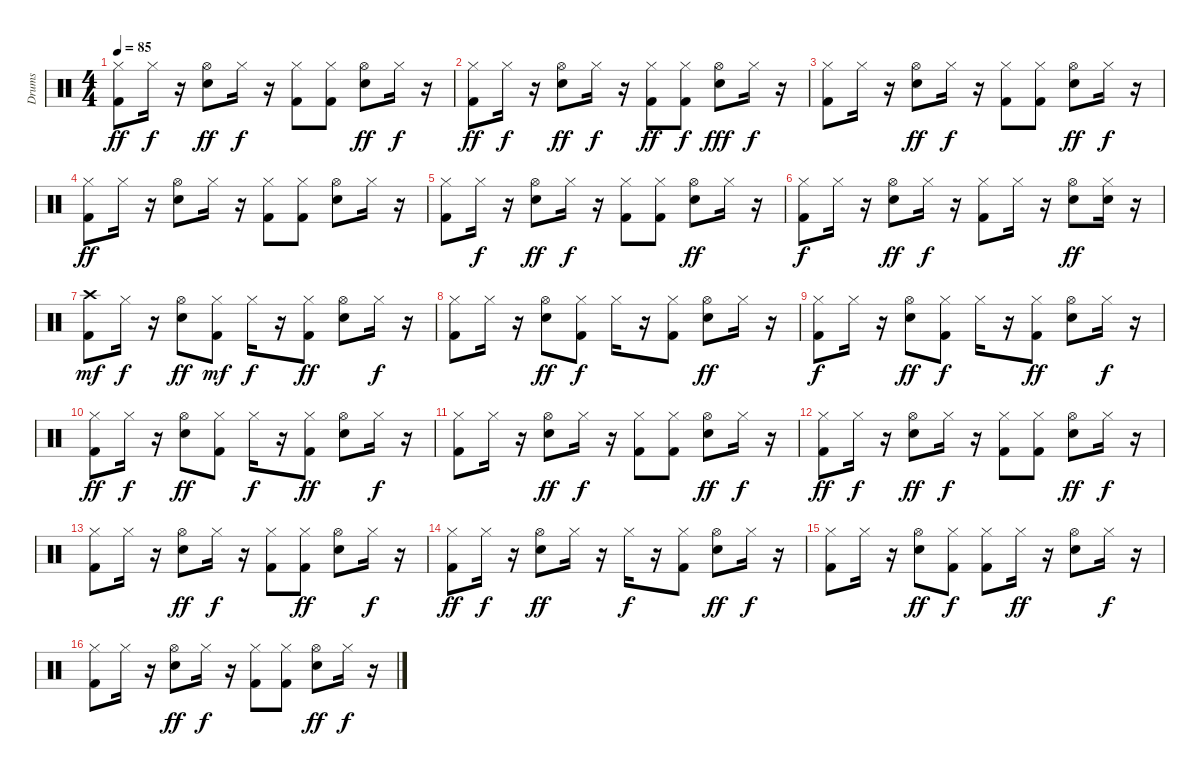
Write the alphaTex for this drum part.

\track ("Drums" "Drums") {instrument percussion}
\staff {score}
\articulation defaults
\ts (4 4)
\tempo 85
\clef neutral
\ks c
("Kick (hit) 2" "Hi-Hat (closed)").8{dy ff} "Hi-Hat (closed)".16{dy f} r.16 ("Electric Snare (hit)" "Hi-Hat (open)").8{dy ff} "Hi-Hat (closed)".16{dy f} r.16 ("Kick (hit) 2" "Hi-Hat (closed)").8 ("Kick (hit) 2" "Hi-Hat (closed)").8 ("Electric Snare (hit)" "Hi-Hat (open)").8{dy ff} "Hi-Hat (closed)".16{dy f} r.16 |
("Kick (hit) 2" "Hi-Hat (closed)").8{dy ff} "Hi-Hat (closed)".16{dy f} r.16 ("Electric Snare (hit)" "Hi-Hat (open)").8{dy ff} "Hi-Hat (closed)".16{dy f} r.16 ("Kick (hit) 2" "Hi-Hat (closed)").8{dy ff} ("Kick (hit) 2" "Hi-Hat (closed)").8{dy f} ("Electric Snare (hit)" "Hi-Hat (open)").8{dy fff} "Hi-Hat (closed)".16{dy f} r.16 |
("Kick (hit) 2" "Hi-Hat (closed)").8 "Hi-Hat (closed)".16 r.16 ("Electric Snare (hit)" "Hi-Hat (open)").8{dy ff} "Hi-Hat (closed)".16{dy f} r.16 ("Kick (hit) 2" "Hi-Hat (closed)").8 ("Kick (hit) 2" "Hi-Hat (closed)").8 ("Electric Snare (hit)" "Hi-Hat (open)").8{dy ff} "Hi-Hat (closed)".16{dy f} r.16 |
("Kick (hit) 2" "Hi-Hat (closed)").8{dy ff} "Hi-Hat (closed)".16 r.16 ("Electric Snare (hit)" "Hi-Hat (open)").8 "Hi-Hat (closed)".16 r.16 ("Kick (hit) 2" "Hi-Hat (closed)").8 ("Kick (hit) 2" "Hi-Hat (closed)").8 ("Electric Snare (hit)" "Hi-Hat (open)").8 "Hi-Hat (closed)".16 r.16 |
("Kick (hit) 2" "Hi-Hat (closed)").8 "Hi-Hat (closed)".16{dy f} r.16 ("Electric Snare (hit)" "Hi-Hat (open)").8{dy ff} "Hi-Hat (closed)".16{dy f} r.16 ("Kick (hit) 2" "Hi-Hat (closed)").8 ("Kick (hit) 2" "Hi-Hat (closed)").8 ("Electric Snare (hit)" "Hi-Hat (open)").8{dy ff} "Hi-Hat (closed)".16 r.16 |
("Kick (hit) 2" "Hi-Hat (closed)").8{dy f} "Hi-Hat (closed)".16 r.16 ("Electric Snare (hit)" "Hi-Hat (open)").8{dy ff} "Hi-Hat (closed)".16{dy f} r.16 ("Kick (hit) 2" "Hi-Hat (closed)").8 "Hi-Hat (closed)".16 r.16 ("Electric Snare (hit)" "Hi-Hat (open)").8{dy ff} ("Hi-Hat (closed)" "Electric Snare (hit)").16 r.16 |
("Kick (hit) 2" "Crash high (hit)").8{dy mf} "Hi-Hat (closed)".16{dy f} r.16 ("Electric Snare (hit)" "Hi-Hat (open)").8{dy ff} ("Kick (hit) 2" "Hi-Hat (closed)").8{dy mf} "Hi-Hat (closed)".16{dy f} r.16 ("Kick (hit) 2" "Hi-Hat (closed)").8{dy ff} ("Electric Snare (hit)" "Hi-Hat (open)").8 "Hi-Hat (closed)".16{dy f} r.16 |
("Kick (hit) 2" "Hi-Hat (closed)").8 "Hi-Hat (closed)".16 r.16 ("Electric Snare (hit)" "Hi-Hat (open)").8{dy ff} ("Kick (hit) 2" "Hi-Hat (closed)").8{dy f} "Hi-Hat (closed)".16 r.16 ("Kick (hit) 2" "Hi-Hat (closed)").8 ("Electric Snare (hit)" "Hi-Hat (open)").8{dy ff} "Hi-Hat (closed)".16 r.16 |
("Kick (hit) 2" "Hi-Hat (closed)").8{dy f} "Hi-Hat (closed)".16 r.16 ("Electric Snare (hit)" "Hi-Hat (open)").8{dy ff} ("Kick (hit) 2" "Hi-Hat (closed)").8{dy f} "Hi-Hat (closed)".16 r.16 ("Kick (hit) 2" "Hi-Hat (closed)").8{dy ff} ("Electric Snare (hit)" "Hi-Hat (open)").8 "Hi-Hat (closed)".16{dy f} r.16 |
("Kick (hit) 2" "Hi-Hat (closed)").8{dy ff} "Hi-Hat (closed)".16{dy f} r.16 ("Electric Snare (hit)" "Hi-Hat (open)").8{dy ff} ("Kick (hit) 2" "Hi-Hat (closed)").8 "Hi-Hat (closed)".16{dy f} r.16 ("Kick (hit) 2" "Hi-Hat (closed)").8{dy ff} ("Electric Snare (hit)" "Hi-Hat (open)").8 "Hi-Hat (closed)".16{dy f} r.16 |
("Kick (hit) 2" "Hi-Hat (closed)").8 "Hi-Hat (closed)".16 r.16 ("Electric Snare (hit)" "Hi-Hat (open)").8{dy ff} "Hi-Hat (closed)".16{dy f} r.16 ("Kick (hit) 2" "Hi-Hat (closed)").8 ("Kick (hit) 2" "Hi-Hat (closed)").8 ("Electric Snare (hit)" "Hi-Hat (open)").8{dy ff} "Hi-Hat (closed)".16{dy f} r.16 |
("Kick (hit) 2" "Hi-Hat (closed)").8{dy ff} "Hi-Hat (closed)".16{dy f} r.16 ("Electric Snare (hit)" "Hi-Hat (open)").8{dy ff} "Hi-Hat (closed)".16{dy f} r.16 ("Kick (hit) 2" "Hi-Hat (closed)").8 ("Kick (hit) 2" "Hi-Hat (closed)").8 ("Electric Snare (hit)" "Hi-Hat (open)").8{dy ff} "Hi-Hat (closed)".16{dy f} r.16 |
("Kick (hit) 2" "Hi-Hat (closed)").8 "Hi-Hat (closed)".16 r.16 ("Electric Snare (hit)" "Hi-Hat (open)").8{dy ff} "Hi-Hat (closed)".16{dy f} r.16 ("Kick (hit) 2" "Hi-Hat (closed)").8 ("Kick (hit) 2" "Hi-Hat (closed)").8{dy ff} ("Electric Snare (hit)" "Hi-Hat (open)").8 "Hi-Hat (closed)".16{dy f} r.16 |
("Kick (hit) 2" "Hi-Hat (closed)").8{dy ff} "Hi-Hat (closed)".16{dy f} r.16 ("Electric Snare (hit)" "Hi-Hat (open)").8{dy ff} "Hi-Hat (closed)".16 r.16 "Hi-Hat (closed)".16{dy f} r.16 ("Kick (hit) 2" "Hi-Hat (closed)").8 ("Electric Snare (hit)" "Hi-Hat (open)").8{dy ff} "Hi-Hat (closed)".16{dy f} r.16 |
("Kick (hit) 2" "Hi-Hat (closed)").8 "Hi-Hat (closed)".16 r.16 ("Electric Snare (hit)" "Hi-Hat (open)").8{dy ff} ("Kick (hit) 2" "Hi-Hat (closed)").8{dy f} ("Kick (hit) 2" "Hi-Hat (closed)").8 "Hi-Hat (closed)".16{dy ff} r.16 ("Electric Snare (hit)" "Hi-Hat (open)").8 "Hi-Hat (closed)".16{dy f} r.16 |
("Kick (hit) 2" "Hi-Hat (closed)").8 "Hi-Hat (closed)".16 r.16 ("Electric Snare (hit)" "Hi-Hat (open)").8{dy ff} "Hi-Hat (closed)".16{dy f} r.16 ("Kick (hit) 2" "Hi-Hat (closed)").8 ("Kick (hit) 2" "Hi-Hat (closed)").8 ("Electric Snare (hit)" "Hi-Hat (open)").8{dy ff} "Hi-Hat (closed)".16{dy f} r.16
